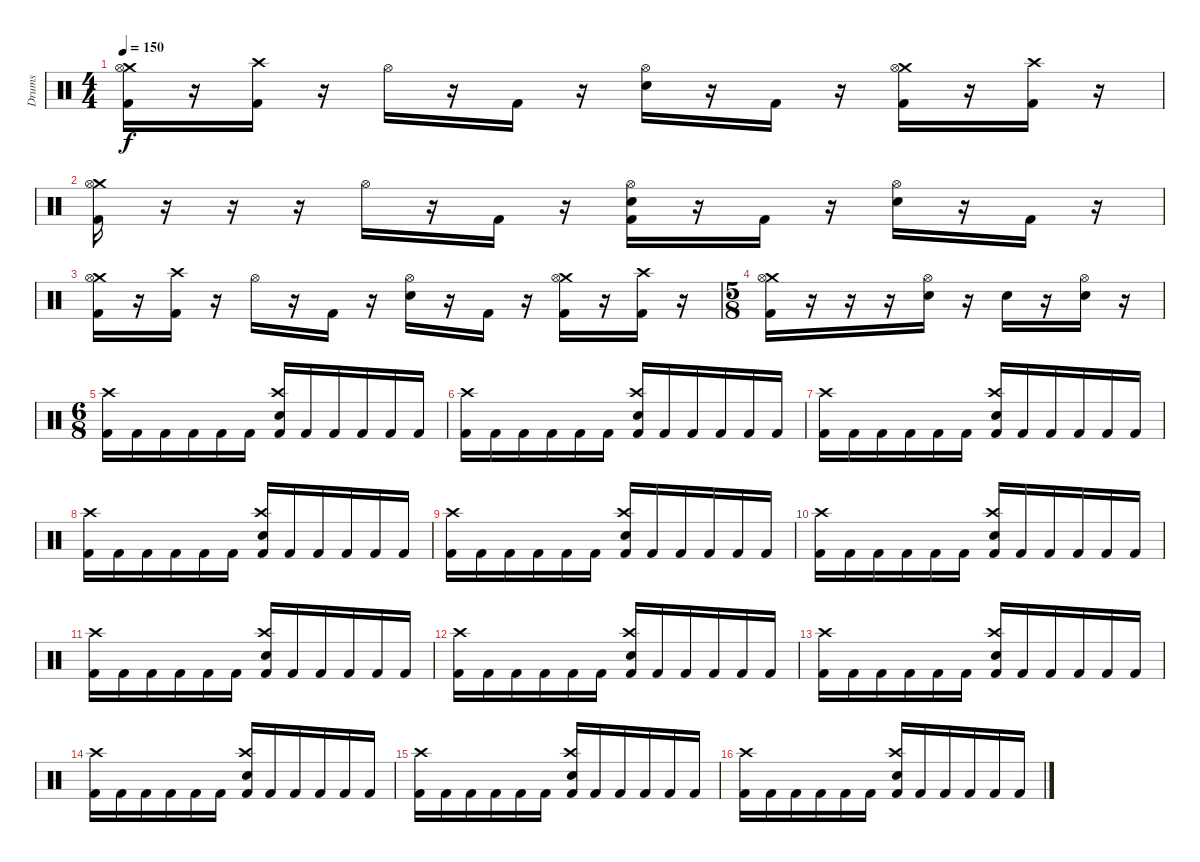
\track ("Drums" "Drums") {instrument percussion}
\staff {score}
\articulation defaults
\ts (4 4)
\tempo 150
\clef neutral
\ks c
("Crash medium (hit)" "Hi-Hat (open)" "Kick (hit) 2").16{dy f} r.16 ("Crash high (hit)" "Kick (hit) 2").16 r.16 "Hi-Hat (open)".16 r.16 "Kick (hit) 2".16 r.16 ("Hi-Hat (open)" "Electric Snare (hit)").16 r.16 "Kick (hit) 2".16 r.16 ("Crash medium (hit)" "Hi-Hat (open)" "Kick (hit) 2").16 r.16 ("Crash high (hit)" "Kick (hit) 2").16 r.16 |
("Crash medium (hit)" "Hi-Hat (open)" "Kick (hit) 2").16 r.16 r.16 r.16 "Hi-Hat (open)".16 r.16 "Kick (hit) 2".16 r.16 ("Hi-Hat (open)" "Electric Snare (hit)" "Kick (hit) 2").16 r.16 "Kick (hit) 2".16 r.16 ("Hi-Hat (open)" "Electric Snare (hit)").16 r.16 "Kick (hit) 2".16 r.16 |
("Crash medium (hit)" "Hi-Hat (open)" "Kick (hit) 2").16 r.16 ("Crash high (hit)" "Kick (hit) 2").16 r.16 "Hi-Hat (open)".16 r.16 "Kick (hit) 2".16 r.16 ("Hi-Hat (open)" "Electric Snare (hit)").16 r.16 "Kick (hit) 2".16 r.16 ("Crash medium (hit)" "Hi-Hat (open)" "Kick (hit) 2").16 r.16 ("Crash high (hit)" "Kick (hit) 2").16 r.16 |
\ts (5 8)
("Crash medium (hit)" "Hi-Hat (open)" "Kick (hit) 2").16 r.16 r.16 r.16 ("Hi-Hat (open)" "Electric Snare (hit)").16 r.16 "Electric Snare (hit)".16 r.16 ("Hi-Hat (open)" "Electric Snare (hit)").16 r.16 |
\ts (6 8)
("Crash high (hit)" "Kick (hit) 2").16 "Kick (hit) 2".16 "Kick (hit) 2".16 "Kick (hit) 2".16 "Kick (hit) 2".16 "Kick (hit) 2".16 ("Crash high (hit)" "Electric Snare (hit)" "Kick (hit) 2").16 "Kick (hit) 2".16 "Kick (hit) 2".16 "Kick (hit) 2".16 "Kick (hit) 2".16 "Kick (hit) 2".16 |
("Crash high (hit)" "Kick (hit) 2").16 "Kick (hit) 2".16 "Kick (hit) 2".16 "Kick (hit) 2".16 "Kick (hit) 2".16 "Kick (hit) 2".16 ("Crash high (hit)" "Electric Snare (hit)" "Kick (hit) 2").16 "Kick (hit) 2".16 "Kick (hit) 2".16 "Kick (hit) 2".16 "Kick (hit) 2".16 "Kick (hit) 2".16 |
("Crash high (hit)" "Kick (hit) 2").16 "Kick (hit) 2".16 "Kick (hit) 2".16 "Kick (hit) 2".16 "Kick (hit) 2".16 "Kick (hit) 2".16 ("Crash high (hit)" "Electric Snare (hit)" "Kick (hit) 2").16 "Kick (hit) 2".16 "Kick (hit) 2".16 "Kick (hit) 2".16 "Kick (hit) 2".16 "Kick (hit) 2".16 |
("Crash high (hit)" "Kick (hit) 2").16 "Kick (hit) 2".16 "Kick (hit) 2".16 "Kick (hit) 2".16 "Kick (hit) 2".16 "Kick (hit) 2".16 ("Crash high (hit)" "Electric Snare (hit)" "Kick (hit) 2").16 "Kick (hit) 2".16 "Kick (hit) 2".16 "Kick (hit) 2".16 "Kick (hit) 2".16 "Kick (hit) 2".16 |
("Crash high (hit)" "Kick (hit) 2").16 "Kick (hit) 2".16 "Kick (hit) 2".16 "Kick (hit) 2".16 "Kick (hit) 2".16 "Kick (hit) 2".16 ("Crash high (hit)" "Electric Snare (hit)" "Kick (hit) 2").16 "Kick (hit) 2".16 "Kick (hit) 2".16 "Kick (hit) 2".16 "Kick (hit) 2".16 "Kick (hit) 2".16 |
("Crash high (hit)" "Kick (hit) 2").16 "Kick (hit) 2".16 "Kick (hit) 2".16 "Kick (hit) 2".16 "Kick (hit) 2".16 "Kick (hit) 2".16 ("Crash high (hit)" "Electric Snare (hit)" "Kick (hit) 2").16 "Kick (hit) 2".16 "Kick (hit) 2".16 "Kick (hit) 2".16 "Kick (hit) 2".16 "Kick (hit) 2".16 |
("Crash high (hit)" "Kick (hit) 2").16 "Kick (hit) 2".16 "Kick (hit) 2".16 "Kick (hit) 2".16 "Kick (hit) 2".16 "Kick (hit) 2".16 ("Crash high (hit)" "Electric Snare (hit)" "Kick (hit) 2").16 "Kick (hit) 2".16 "Kick (hit) 2".16 "Kick (hit) 2".16 "Kick (hit) 2".16 "Kick (hit) 2".16 |
("Crash high (hit)" "Kick (hit) 2").16 "Kick (hit) 2".16 "Kick (hit) 2".16 "Kick (hit) 2".16 "Kick (hit) 2".16 "Kick (hit) 2".16 ("Crash high (hit)" "Electric Snare (hit)" "Kick (hit) 2").16 "Kick (hit) 2".16 "Kick (hit) 2".16 "Kick (hit) 2".16 "Kick (hit) 2".16 "Kick (hit) 2".16 |
("Crash high (hit)" "Kick (hit) 2").16 "Kick (hit) 2".16 "Kick (hit) 2".16 "Kick (hit) 2".16 "Kick (hit) 2".16 "Kick (hit) 2".16 ("Crash high (hit)" "Electric Snare (hit)" "Kick (hit) 2").16 "Kick (hit) 2".16 "Kick (hit) 2".16 "Kick (hit) 2".16 "Kick (hit) 2".16 "Kick (hit) 2".16 |
("Crash high (hit)" "Kick (hit) 2").16 "Kick (hit) 2".16 "Kick (hit) 2".16 "Kick (hit) 2".16 "Kick (hit) 2".16 "Kick (hit) 2".16 ("Crash high (hit)" "Electric Snare (hit)" "Kick (hit) 2").16 "Kick (hit) 2".16 "Kick (hit) 2".16 "Kick (hit) 2".16 "Kick (hit) 2".16 "Kick (hit) 2".16 |
("Crash high (hit)" "Kick (hit) 2").16 "Kick (hit) 2".16 "Kick (hit) 2".16 "Kick (hit) 2".16 "Kick (hit) 2".16 "Kick (hit) 2".16 ("Crash high (hit)" "Electric Snare (hit)" "Kick (hit) 2").16 "Kick (hit) 2".16 "Kick (hit) 2".16 "Kick (hit) 2".16 "Kick (hit) 2".16 "Kick (hit) 2".16 |
("Crash high (hit)" "Kick (hit) 2").16 "Kick (hit) 2".16 "Kick (hit) 2".16 "Kick (hit) 2".16 "Kick (hit) 2".16 "Kick (hit) 2".16 ("Crash high (hit)" "Electric Snare (hit)" "Kick (hit) 2").16 "Kick (hit) 2".16 "Kick (hit) 2".16 "Kick (hit) 2".16 "Kick (hit) 2".16 "Kick (hit) 2".16
